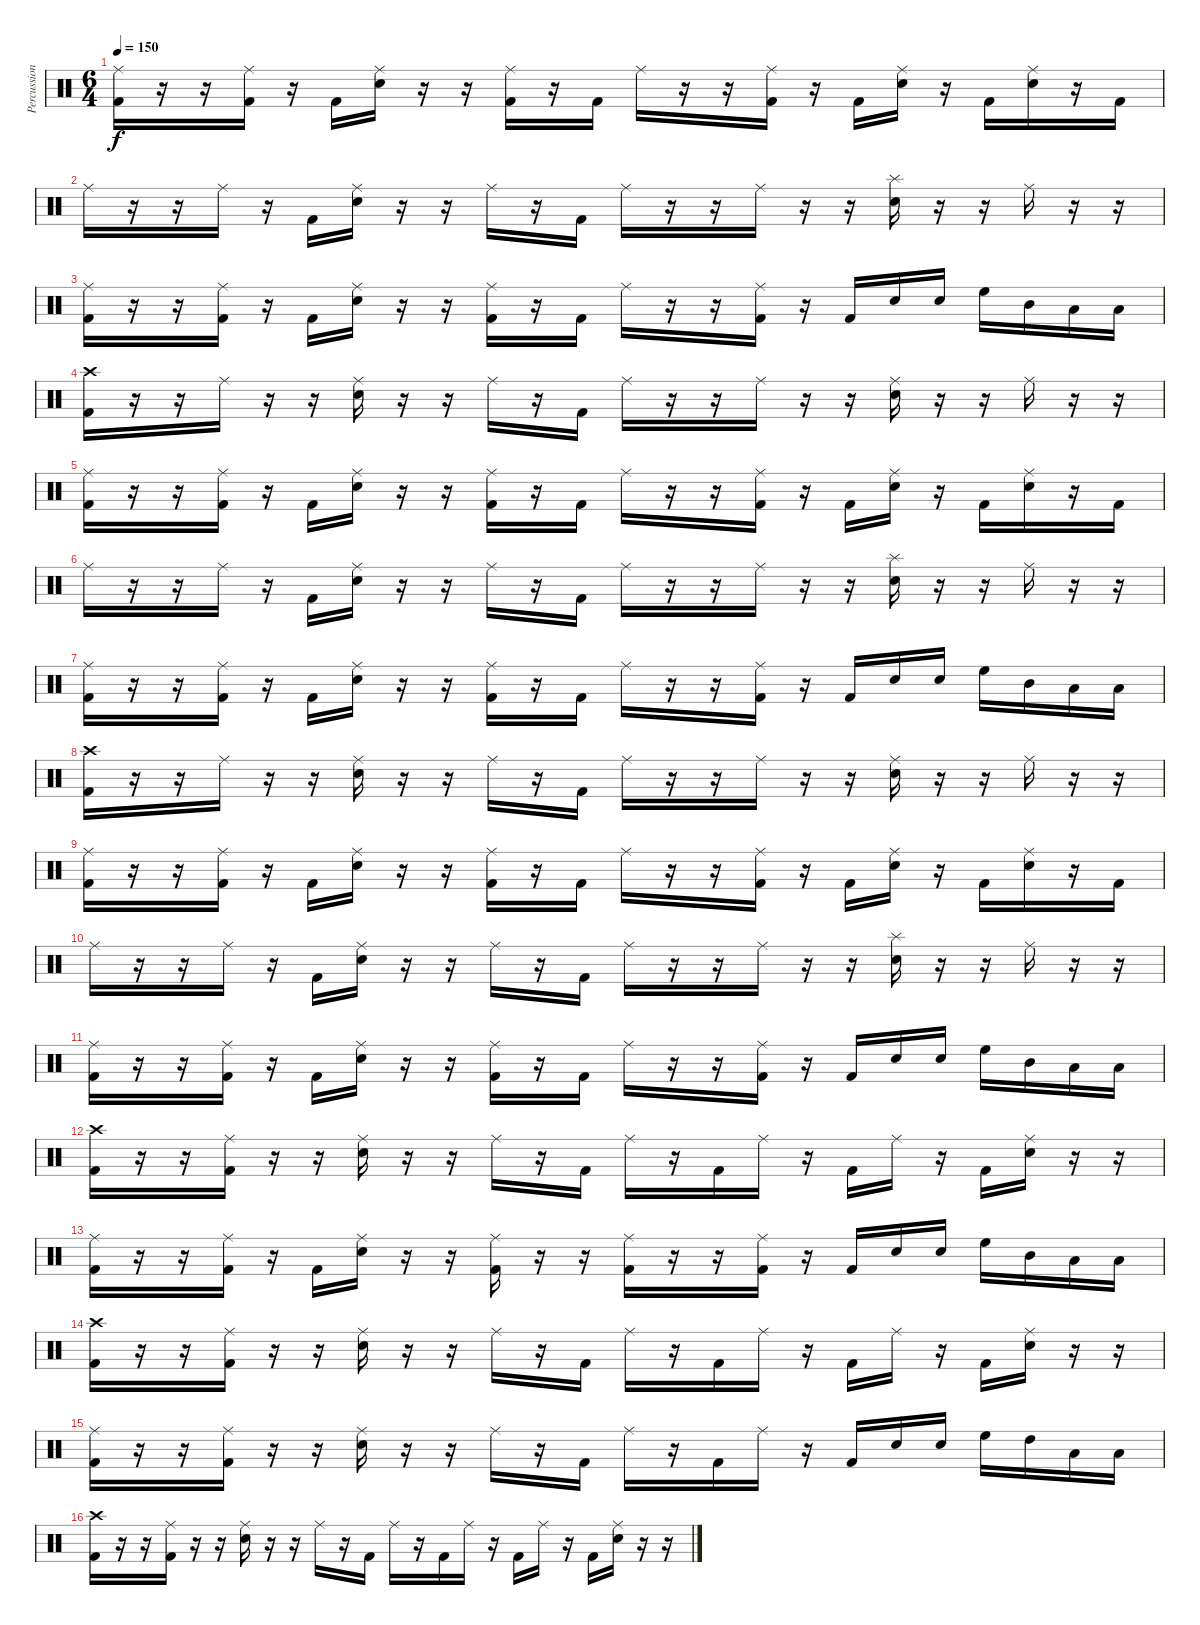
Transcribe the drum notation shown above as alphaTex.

\track ("Percussion" "Percussion") {instrument percussion}
\staff {score}
\articulation defaults
\ts (6 4)
\tempo 150
\clef neutral
\ks c
("Ride (middle)" "Kick (hit) 2").16{dy f} r.16 r.16 ("Ride (middle)" "Kick (hit) 2").16 r.16 "Kick (hit) 2".16 ("Ride (middle)" "Electric Snare (hit)").16 r.16 r.16 ("Ride (middle)" "Kick (hit) 2").16 r.16 "Kick (hit) 2".16 "Ride (middle)".16 r.16 r.16 ("Ride (middle)" "Kick (hit) 2").16 r.16 "Kick (hit) 2".16 ("Ride (middle)" "Electric Snare (hit)").16 r.16 "Kick (hit) 2".16 ("Ride (middle)" "Electric Snare (hit)").16 r.16 "Kick (hit) 2".16 |
"Ride (middle)".16 r.16 r.16 "Ride (middle)".16 r.16 "Kick (hit) 2".16 ("Ride (middle)" "Electric Snare (hit)").16 r.16 r.16 "Ride (middle)".16 r.16 "Kick (hit) 2".16 "Ride (middle)".16 r.16 r.16 "Ride (middle)".16 r.16 r.16 ("Splash (hit)" "Electric Snare (hit)").16 r.16 r.16 "Ride (middle)".16 r.16 r.16 |
("Ride (middle)" "Kick (hit) 2").16 r.16 r.16 ("Ride (middle)" "Kick (hit) 2").16 r.16 "Kick (hit) 2".16 ("Ride (middle)" "Electric Snare (hit)").16 r.16 r.16 ("Ride (middle)" "Kick (hit) 2").16 r.16 "Kick (hit) 2".16 "Ride (middle)".16 r.16 r.16 ("Ride (middle)" "Kick (hit) 2").16 r.16 "Kick (hit) 2".16 "Electric Snare (hit)".16 "Electric Snare (hit)".16 "High Floor Tom (hit)".16 "Mid Tom (hit)".16 "Low Tom (hit)".16 "Low Floor Tom (hit)".16 |
("Crash high (hit)" "Kick (hit) 2").16 r.16 r.16 "Ride (middle)".16 r.16 r.16 ("Ride (middle)" "Electric Snare (hit)").16 r.16 r.16 "Ride (middle)".16 r.16 "Kick (hit) 2".16 "Ride (middle)".16 r.16 r.16 "Ride (middle)".16 r.16 r.16 ("Ride (middle)" "Electric Snare (hit)").16 r.16 r.16 "Ride (middle)".16 r.16 r.16 |
("Ride (middle)" "Kick (hit) 2").16 r.16 r.16 ("Ride (middle)" "Kick (hit) 2").16 r.16 "Kick (hit) 2".16 ("Ride (middle)" "Electric Snare (hit)").16 r.16 r.16 ("Ride (middle)" "Kick (hit) 2").16 r.16 "Kick (hit) 2".16 "Ride (middle)".16 r.16 r.16 ("Ride (middle)" "Kick (hit) 2").16 r.16 "Kick (hit) 2".16 ("Ride (middle)" "Electric Snare (hit)").16 r.16 "Kick (hit) 2".16 ("Ride (middle)" "Electric Snare (hit)").16 r.16 "Kick (hit) 2".16 |
"Ride (middle)".16 r.16 r.16 "Ride (middle)".16 r.16 "Kick (hit) 2".16 ("Ride (middle)" "Electric Snare (hit)").16 r.16 r.16 "Ride (middle)".16 r.16 "Kick (hit) 2".16 "Ride (middle)".16 r.16 r.16 "Ride (middle)".16 r.16 r.16 ("Splash (hit)" "Electric Snare (hit)").16 r.16 r.16 "Ride (middle)".16 r.16 r.16 |
("Ride (middle)" "Kick (hit) 2").16 r.16 r.16 ("Ride (middle)" "Kick (hit) 2").16 r.16 "Kick (hit) 2".16 ("Ride (middle)" "Electric Snare (hit)").16 r.16 r.16 ("Ride (middle)" "Kick (hit) 2").16 r.16 "Kick (hit) 2".16 "Ride (middle)".16 r.16 r.16 ("Ride (middle)" "Kick (hit) 2").16 r.16 "Kick (hit) 2".16 "Electric Snare (hit)".16 "Electric Snare (hit)".16 "High Floor Tom (hit)".16 "Mid Tom (hit)".16 "Low Tom (hit)".16 "Low Floor Tom (hit)".16 |
("Crash high (hit)" "Kick (hit) 2").16 r.16 r.16 "Ride (middle)".16 r.16 r.16 ("Ride (middle)" "Electric Snare (hit)").16 r.16 r.16 "Ride (middle)".16 r.16 "Kick (hit) 2".16 "Ride (middle)".16 r.16 r.16 "Ride (middle)".16 r.16 r.16 ("Ride (middle)" "Electric Snare (hit)").16 r.16 r.16 "Ride (middle)".16 r.16 r.16 |
("Ride (middle)" "Kick (hit) 2").16 r.16 r.16 ("Ride (middle)" "Kick (hit) 2").16 r.16 "Kick (hit) 2".16 ("Ride (middle)" "Electric Snare (hit)").16 r.16 r.16 ("Ride (middle)" "Kick (hit) 2").16 r.16 "Kick (hit) 2".16 "Ride (middle)".16 r.16 r.16 ("Ride (middle)" "Kick (hit) 2").16 r.16 "Kick (hit) 2".16 ("Ride (middle)" "Electric Snare (hit)").16 r.16 "Kick (hit) 2".16 ("Ride (middle)" "Electric Snare (hit)").16 r.16 "Kick (hit) 2".16 |
"Ride (middle)".16 r.16 r.16 "Ride (middle)".16 r.16 "Kick (hit) 2".16 ("Ride (middle)" "Electric Snare (hit)").16 r.16 r.16 "Ride (middle)".16 r.16 "Kick (hit) 2".16 "Ride (middle)".16 r.16 r.16 "Ride (middle)".16 r.16 r.16 ("Splash (hit)" "Electric Snare (hit)").16 r.16 r.16 "Ride (middle)".16 r.16 r.16 |
("Ride (middle)" "Kick (hit) 2").16 r.16 r.16 ("Ride (middle)" "Kick (hit) 2").16 r.16 "Kick (hit) 2".16 ("Ride (middle)" "Electric Snare (hit)").16 r.16 r.16 ("Ride (middle)" "Kick (hit) 2").16 r.16 "Kick (hit) 2".16 "Ride (middle)".16 r.16 r.16 ("Ride (middle)" "Kick (hit) 2").16 r.16 "Kick (hit) 2".16 "Electric Snare (hit)".16 "Electric Snare (hit)".16 "High Floor Tom (hit)".16 "Mid Tom (hit)".16 "Low Tom (hit)".16 "Low Floor Tom (hit)".16 |
("Crash high (hit)" "Kick (hit) 2").16 r.16 r.16 ("Ride (middle)" "Kick (hit) 2").16 r.16 r.16 ("Ride (middle)" "Electric Snare (hit)").16 r.16 r.16 "Ride (middle)".16 r.16 "Kick (hit) 2".16 "Ride (middle)".16 r.16 "Kick (hit) 2".16 "Ride (middle)".16 r.16 "Kick (hit) 2".16 "Ride (middle)".16 r.16 "Kick (hit) 2".16 ("Ride (middle)" "Electric Snare (hit)").16 r.16 r.16 |
("Ride (middle)" "Kick (hit) 2").16 r.16 r.16 ("Ride (middle)" "Kick (hit) 2").16 r.16 "Kick (hit) 2".16 ("Ride (middle)" "Electric Snare (hit)").16 r.16 r.16 ("Ride (middle)" "Kick (hit) 2").16 r.16 r.16 ("Ride (middle)" "Kick (hit) 2").16 r.16 r.16 ("Ride (middle)" "Kick (hit) 2").16 r.16 "Kick (hit) 2".16 "Electric Snare (hit)".16 "Electric Snare (hit)".16 "High Floor Tom (hit)".16 "Mid Tom (hit)".16 "Low Tom (hit)".16 "Low Floor Tom (hit)".16 |
("Crash high (hit)" "Kick (hit) 2").16 r.16 r.16 ("Ride (middle)" "Kick (hit) 2").16 r.16 r.16 ("Ride (middle)" "Electric Snare (hit)").16 r.16 r.16 "Ride (middle)".16 r.16 "Kick (hit) 2".16 "Ride (middle)".16 r.16 "Kick (hit) 2".16 "Ride (middle)".16 r.16 "Kick (hit) 2".16 "Ride (middle)".16 r.16 "Kick (hit) 2".16 ("Ride (middle)" "Electric Snare (hit)").16 r.16 r.16 |
("Ride (middle)" "Kick (hit) 2").16 r.16 r.16 ("Ride (middle)" "Kick (hit) 2").16 r.16 r.16 ("Ride (middle)" "Electric Snare (hit)").16 r.16 r.16 "Ride (middle)".16 r.16 "Kick (hit) 2".16 "Ride (middle)".16 r.16 "Kick (hit) 2".16 "Ride (middle)".16 r.16 "Kick (hit) 2".16 "Electric Snare (hit)".16 "Electric Snare (hit)".16 "High Floor Tom (hit)".16 "High Tom (hit)".16 "Low Tom (hit)".16 "Low Floor Tom (hit)".16 |
("Crash high (hit)" "Kick (hit) 2").16 r.16 r.16 ("Ride (middle)" "Kick (hit) 2").16 r.16 r.16 ("Ride (middle)" "Electric Snare (hit)").16 r.16 r.16 "Ride (middle)".16 r.16 "Kick (hit) 2".16 "Ride (middle)".16 r.16 "Kick (hit) 2".16 "Ride (middle)".16 r.16 "Kick (hit) 2".16 "Ride (middle)".16 r.16 "Kick (hit) 2".16 ("Ride (middle)" "Electric Snare (hit)").16 r.16 r.16
